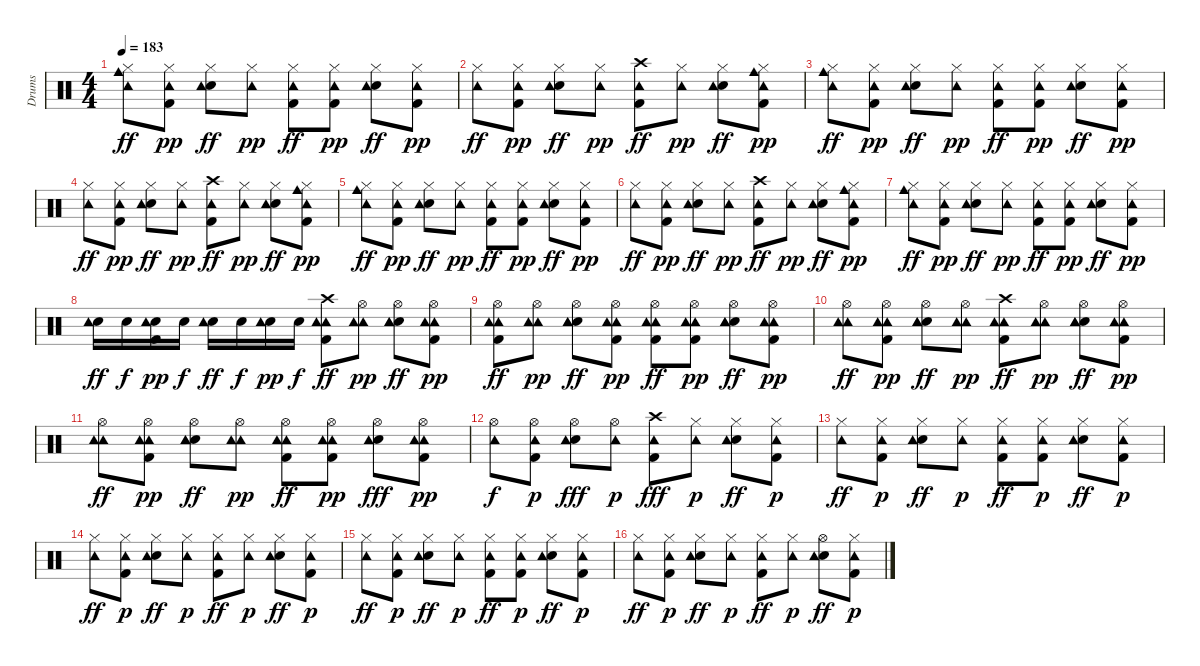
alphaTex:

\track ("Drums" "Drums") {instrument percussion}
\staff {score}
\articulation defaults
\ts (4 4)
\tempo 183
\clef neutral
\ks c
("Cowbell medium (hit)" "Hi-Hat (closed)" "Tambourine (hit)").8{dy ff} ("Kick (hit) 2" "Hi-Hat (closed)" "Tambourine (hit)").8{dy pp} ("Snare (hit) 2" "Hi-Hat (closed)" "Tambourine (hit)").8{dy ff} ("Hi-Hat (closed)" "Tambourine (hit)").8{dy pp} ("Kick (hit) 2" "Hi-Hat (closed)" "Tambourine (hit)").8{dy ff} ("Kick (hit) 2" "Hi-Hat (closed)" "Tambourine (hit)").8{dy pp} ("Snare (hit) 2" "Hi-Hat (closed)" "Tambourine (hit)").8{dy ff} ("Kick (hit) 2" "Hi-Hat (closed)" "Tambourine (hit)").8{dy pp} |
("Hi-Hat (closed)" "Tambourine (hit)").8{dy ff} ("Kick (hit) 2" "Hi-Hat (closed)" "Tambourine (hit)").8{dy pp} ("Snare (hit) 2" "Hi-Hat (closed)" "Tambourine (hit)").8{dy ff} ("Hi-Hat (closed)" "Tambourine (hit)").8{dy pp} ("Kick (hit) 2" "Crash high (hit)" "Tambourine (hit)").8{dy ff} ("Hi-Hat (closed)" "Tambourine (hit)").8{dy pp} ("Snare (hit) 2" "Hi-Hat (closed)" "Tambourine (hit)").8{dy ff} ("Cowbell medium (hit)" "Kick (hit) 2" "Hi-Hat (closed)" "Tambourine (hit)").8{dy pp} |
("Cowbell medium (hit)" "Hi-Hat (closed)" "Tambourine (hit)").8{dy ff} ("Kick (hit) 2" "Hi-Hat (closed)" "Tambourine (hit)").8{dy pp} ("Snare (hit) 2" "Hi-Hat (closed)" "Tambourine (hit)").8{dy ff} ("Hi-Hat (closed)" "Tambourine (hit)").8{dy pp} ("Kick (hit) 2" "Hi-Hat (closed)" "Tambourine (hit)").8{dy ff} ("Kick (hit) 2" "Hi-Hat (closed)" "Tambourine (hit)").8{dy pp} ("Snare (hit) 2" "Hi-Hat (closed)" "Tambourine (hit)").8{dy ff} ("Kick (hit) 2" "Hi-Hat (closed)" "Tambourine (hit)").8{dy pp} |
("Hi-Hat (closed)" "Tambourine (hit)").8{dy ff} ("Kick (hit) 2" "Hi-Hat (closed)" "Tambourine (hit)").8{dy pp} ("Snare (hit) 2" "Hi-Hat (closed)" "Tambourine (hit)").8{dy ff} ("Hi-Hat (closed)" "Tambourine (hit)").8{dy pp} ("Kick (hit) 2" "Crash high (hit)" "Tambourine (hit)").8{dy ff} ("Hi-Hat (closed)" "Tambourine (hit)").8{dy pp} ("Snare (hit) 2" "Hi-Hat (closed)" "Tambourine (hit)").8{dy ff} ("Cowbell medium (hit)" "Kick (hit) 2" "Hi-Hat (closed)" "Tambourine (hit)").8{dy pp} |
("Cowbell medium (hit)" "Hi-Hat (closed)" "Tambourine (hit)").8{dy ff} ("Kick (hit) 2" "Hi-Hat (closed)" "Tambourine (hit)").8{dy pp} ("Snare (hit) 2" "Hi-Hat (closed)" "Tambourine (hit)").8{dy ff} ("Hi-Hat (closed)" "Tambourine (hit)").8{dy pp} ("Kick (hit) 2" "Hi-Hat (closed)" "Tambourine (hit)").8{dy ff} ("Kick (hit) 2" "Hi-Hat (closed)" "Tambourine (hit)").8{dy pp} ("Snare (hit) 2" "Hi-Hat (closed)" "Tambourine (hit)").8{dy ff} ("Kick (hit) 2" "Hi-Hat (closed)" "Tambourine (hit)").8{dy pp} |
("Hi-Hat (closed)" "Tambourine (hit)").8{dy ff} ("Kick (hit) 2" "Hi-Hat (closed)" "Tambourine (hit)").8{dy pp} ("Snare (hit) 2" "Hi-Hat (closed)" "Tambourine (hit)").8{dy ff} ("Hi-Hat (closed)" "Tambourine (hit)").8{dy pp} ("Kick (hit) 2" "Crash high (hit)" "Tambourine (hit)").8{dy ff} ("Hi-Hat (closed)" "Tambourine (hit)").8{dy pp} ("Snare (hit) 2" "Hi-Hat (closed)" "Tambourine (hit)").8{dy ff} ("Cowbell medium (hit)" "Kick (hit) 2" "Hi-Hat (closed)" "Tambourine (hit)").8{dy pp} |
("Cowbell medium (hit)" "Hi-Hat (closed)" "Tambourine (hit)").8{dy ff} ("Kick (hit) 2" "Hi-Hat (closed)" "Tambourine (hit)").8{dy pp} ("Snare (hit) 2" "Hi-Hat (closed)" "Tambourine (hit)").8{dy ff} ("Hi-Hat (closed)" "Tambourine (hit)").8{dy pp} ("Kick (hit) 2" "Hi-Hat (closed)" "Tambourine (hit)").8{dy ff} ("Kick (hit) 2" "Hi-Hat (closed)" "Tambourine (hit)").8{dy pp} ("Snare (hit) 2" "Hi-Hat (closed)" "Tambourine (hit)").8{dy ff} ("Kick (hit) 2" "Hi-Hat (closed)" "Tambourine (hit)").8{dy pp} |
("Snare (hit) 2" "Tambourine (hit)").16{dy ff} "Snare (hit) 2".16{dy f} ("Kick (hit) 2" "Snare (hit) 2" "Tambourine (hit)").16{dy pp} "Snare (hit) 2".16{dy f} ("Snare (hit) 2" "Tambourine (hit)").16{dy ff} "Snare (hit) 2".16{dy f} ("Snare (hit) 2" "Tambourine (hit)").16{dy pp} "Snare (hit) 2".16{dy f} ("Kick (hit) 2" "Crash high (hit)" "Tambourine (hit)" "Tambourine (hit)").8{dy ff} ("Hi-Hat (open)" "Tambourine (hit)" "Tambourine (hit)").8{dy pp} ("Snare (hit) 2" "Hi-Hat (open)" "Tambourine (hit)" "Tambourine (hit)").8{dy ff} ("Kick (hit) 2" "Hi-Hat (open)" "Tambourine (hit)" "Tambourine (hit)").8{dy pp} |
("Kick (hit) 2" "Hi-Hat (open)" "Tambourine (hit)" "Tambourine (hit)").8{dy ff} ("Hi-Hat (open)" "Tambourine (hit)" "Tambourine (hit)").8{dy pp} ("Snare (hit) 2" "Hi-Hat (open)" "Tambourine (hit)" "Tambourine (hit)").8{dy ff} ("Kick (hit) 2" "Hi-Hat (open)" "Tambourine (hit)" "Tambourine (hit)").8{dy pp} ("Kick (hit) 2" "Hi-Hat (open)" "Tambourine (hit)" "Tambourine (hit)").8{dy ff} ("Kick (hit) 2" "Hi-Hat (open)" "Tambourine (hit)" "Tambourine (hit)").8{dy pp} ("Snare (hit) 2" "Hi-Hat (open)" "Tambourine (hit)" "Tambourine (hit)").8{dy ff} ("Kick (hit) 2" "Hi-Hat (open)" "Tambourine (hit)" "Tambourine (hit)").8{dy pp} |
("Hi-Hat (open)" "Tambourine (hit)" "Tambourine (hit)").8{dy ff} ("Kick (hit) 2" "Hi-Hat (open)" "Tambourine (hit)" "Tambourine (hit)").8{dy pp} ("Snare (hit) 2" "Hi-Hat (open)" "Tambourine (hit)" "Tambourine (hit)").8{dy ff} ("Hi-Hat (open)" "Tambourine (hit)" "Tambourine (hit)").8{dy pp} ("Kick (hit) 2" "Crash high (hit)" "Tambourine (hit)" "Tambourine (hit)").8{dy ff} ("Hi-Hat (open)" "Tambourine (hit)" "Tambourine (hit)").8{dy pp} ("Snare (hit) 2" "Hi-Hat (open)" "Tambourine (hit)" "Tambourine (hit)").8{dy ff} ("Kick (hit) 2" "Hi-Hat (open)" "Tambourine (hit)" "Tambourine (hit)").8{dy pp} |
("Hi-Hat (open)" "Tambourine (hit)" "Tambourine (hit)").8{dy ff} ("Kick (hit) 2" "Hi-Hat (open)" "Tambourine (hit)" "Tambourine (hit)").8{dy pp} ("Snare (hit) 2" "Hi-Hat (open)" "Tambourine (hit)" "Tambourine (hit)").8{dy ff} ("Hi-Hat (open)" "Tambourine (hit)" "Tambourine (hit)").8{dy pp} ("Kick (hit) 2" "Hi-Hat (open)" "Tambourine (hit)" "Tambourine (hit)").8{dy ff} ("Kick (hit) 2" "Hi-Hat (open)" "Tambourine (hit)" "Tambourine (hit)").8{dy pp} ("Snare (hit) 2" "Hi-Hat (open)" "Tambourine (hit)").8{dy fff} ("Kick (hit) 2" "Hi-Hat (open)" "Tambourine (hit)" "Tambourine (hit)").8{dy pp} |
("Hi-Hat (open)" "Tambourine (hit)").8{dy f} ("Kick (hit) 2" "Hi-Hat (open)" "Tambourine (hit)").8{dy p} ("Snare (hit) 2" "Hi-Hat (open)" "Tambourine (hit)").8{dy fff} ("Hi-Hat (open)" "Tambourine (hit)").8{dy p} ("Kick (hit) 2" "Crash high (hit)" "Tambourine (hit)").8{dy fff} ("Hi-Hat (closed)" "Tambourine (hit)").8{dy p} ("Snare (hit) 2" "Hi-Hat (closed)" "Tambourine (hit)").8{dy ff} ("Kick (hit) 2" "Hi-Hat (closed)" "Tambourine (hit)").8{dy p} |
("Hi-Hat (closed)" "Tambourine (hit)").8{dy ff} ("Kick (hit) 2" "Hi-Hat (closed)" "Tambourine (hit)").8{dy p} ("Snare (hit) 2" "Hi-Hat (closed)" "Tambourine (hit)").8{dy ff} ("Hi-Hat (closed)" "Tambourine (hit)").8{dy p} ("Kick (hit) 2" "Hi-Hat (closed)" "Tambourine (hit)").8{dy ff} ("Kick (hit) 2" "Hi-Hat (closed)" "Tambourine (hit)").8{dy p} ("Snare (hit) 2" "Hi-Hat (closed)" "Tambourine (hit)").8{dy ff} ("Kick (hit) 2" "Hi-Hat (closed)" "Tambourine (hit)").8{dy p} |
("Hi-Hat (closed)" "Tambourine (hit)").8{dy ff} ("Kick (hit) 2" "Hi-Hat (closed)" "Tambourine (hit)").8{dy p} ("Snare (hit) 2" "Hi-Hat (closed)" "Tambourine (hit)").8{dy ff} ("Hi-Hat (closed)" "Tambourine (hit)").8{dy p} ("Kick (hit) 2" "Hi-Hat (closed)" "Tambourine (hit)").8{dy ff} ("Hi-Hat (closed)" "Tambourine (hit)").8{dy p} ("Snare (hit) 2" "Hi-Hat (closed)" "Tambourine (hit)").8{dy ff} ("Kick (hit) 2" "Hi-Hat (closed)" "Tambourine (hit)").8{dy p} |
("Hi-Hat (closed)" "Tambourine (hit)").8{dy ff} ("Kick (hit) 2" "Hi-Hat (closed)" "Tambourine (hit)").8{dy p} ("Snare (hit) 2" "Hi-Hat (closed)" "Tambourine (hit)").8{dy ff} ("Hi-Hat (closed)" "Tambourine (hit)").8{dy p} ("Kick (hit) 2" "Hi-Hat (closed)" "Tambourine (hit)").8{dy ff} ("Kick (hit) 2" "Hi-Hat (closed)" "Tambourine (hit)").8{dy p} ("Snare (hit) 2" "Hi-Hat (closed)" "Tambourine (hit)").8{dy ff} ("Kick (hit) 2" "Hi-Hat (closed)" "Tambourine (hit)").8{dy p} |
("Hi-Hat (closed)" "Tambourine (hit)").8{dy ff} ("Kick (hit) 2" "Hi-Hat (closed)" "Tambourine (hit)").8{dy p} ("Snare (hit) 2" "Hi-Hat (closed)" "Tambourine (hit)").8{dy ff} ("Hi-Hat (closed)" "Tambourine (hit)").8{dy p} ("Kick (hit) 2" "Hi-Hat (closed)" "Tambourine (hit)").8{dy ff} ("Hi-Hat (closed)" "Tambourine (hit)").8{dy p} ("Snare (hit) 2" "Hi-Hat (open)" "Tambourine (hit)").8{dy ff} ("Kick (hit) 2" "Hi-Hat (closed)" "Tambourine (hit)").8{dy p}
